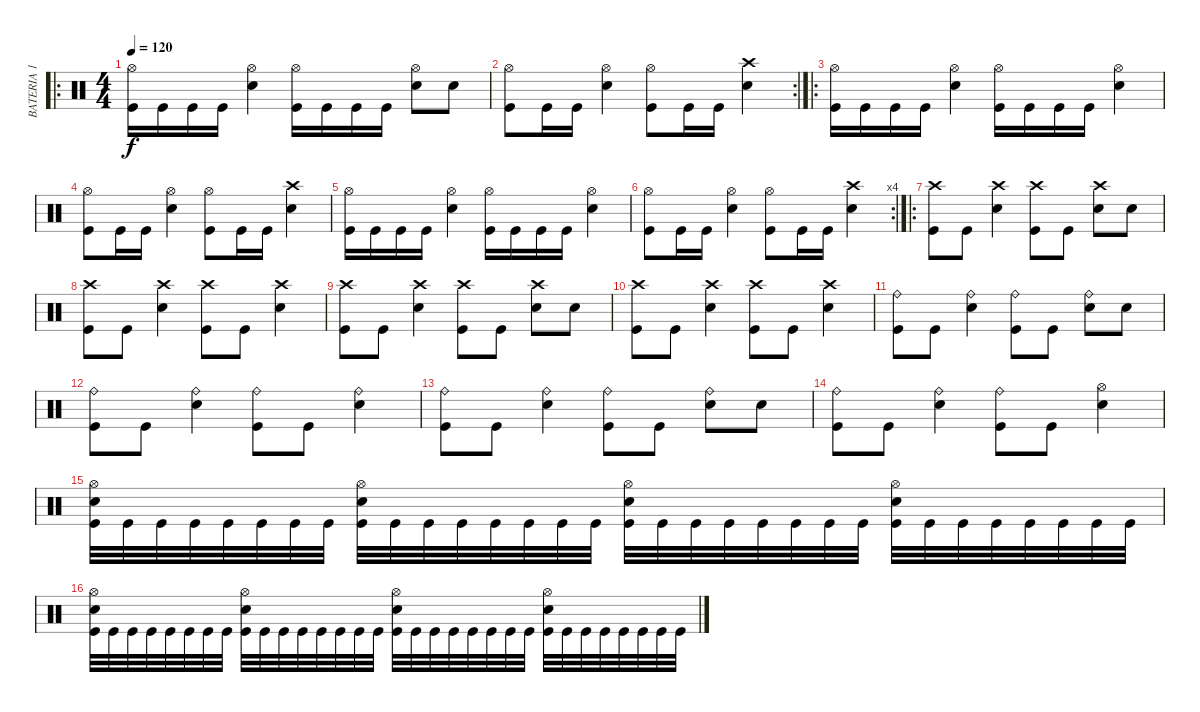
\track ("BATERIA 1" "BATERIA 1") {instrument percussion}
\staff {score}
\articulation defaults
\ro
\ts (4 4)
\tempo 120
\clef neutral
\ks c
("Hi-Hat (open)" "Kick (hit)").16{dy f} "Kick (hit)".16 "Kick (hit)".16 "Kick (hit)".16 ("Hi-Hat (open)" "Snare (hit) 2").4 ("Hi-Hat (open)" "Kick (hit)").16 "Kick (hit)".16 "Kick (hit)".16 "Kick (hit)".16 ("Hi-Hat (open)" "Snare (hit) 2").8 "Snare (hit) 2".8 |
\rc 2
("Hi-Hat (open)" "Kick (hit)").8 "Kick (hit)".16 "Kick (hit)".16 ("Hi-Hat (open)" "Snare (hit) 2").4 ("Hi-Hat (open)" "Kick (hit)").8 "Kick (hit)".16 "Kick (hit)".16 ("Crash high (hit)" "Snare (hit) 2").4 |
\ro
("Hi-Hat (open)" "Kick (hit)").16 "Kick (hit)".16 "Kick (hit)".16 "Kick (hit)".16 ("Hi-Hat (open)" "Snare (hit) 2").4 ("Hi-Hat (open)" "Kick (hit)").16 "Kick (hit)".16 "Kick (hit)".16 "Kick (hit)".16 ("Hi-Hat (open)" "Snare (hit) 2").4 |
("Hi-Hat (open)" "Kick (hit)").8 "Kick (hit)".16 "Kick (hit)".16 ("Hi-Hat (open)" "Snare (hit) 2").4 ("Hi-Hat (open)" "Kick (hit)").8 "Kick (hit)".16 "Kick (hit)".16 ("Crash high (hit)" "Snare (hit) 2").4 |
("Hi-Hat (open)" "Kick (hit)").16 "Kick (hit)".16 "Kick (hit)".16 "Kick (hit)".16 ("Hi-Hat (open)" "Snare (hit) 2").4 ("Hi-Hat (open)" "Kick (hit)").16 "Kick (hit)".16 "Kick (hit)".16 "Kick (hit)".16 ("Hi-Hat (open)" "Snare (hit) 2").4 |
\rc 4
("Hi-Hat (open)" "Kick (hit)").8 "Kick (hit)".16 "Kick (hit)".16 ("Hi-Hat (open)" "Snare (hit) 2").4 ("Hi-Hat (open)" "Kick (hit)").8 "Kick (hit)".16 "Kick (hit)".16 ("Crash high (hit)" "Snare (hit) 2").4 |
\ro
("Crash high (hit)" "Kick (hit)").8 "Kick (hit)".8 ("Crash high (hit)" "Snare (hit) 2").4 ("Crash high (hit)" "Kick (hit)").8 "Kick (hit)".8 ("Crash high (hit)" "Snare (hit) 2").8 "Snare (hit) 2".8 |
("Crash high (hit)" "Kick (hit)").8 "Kick (hit)".8 ("Crash high (hit)" "Snare (hit) 2").4 ("Crash high (hit)" "Kick (hit)").8 "Kick (hit)".8 ("Crash high (hit)" "Snare (hit) 2").4 |
("Crash high (hit)" "Kick (hit)").8 "Kick (hit)".8 ("Crash high (hit)" "Snare (hit) 2").4 ("Crash high (hit)" "Kick (hit)").8 "Kick (hit)".8 ("Crash high (hit)" "Snare (hit) 2").8 "Snare (hit) 2".8 |
("Crash high (hit)" "Kick (hit)").8 "Kick (hit)".8 ("Crash high (hit)" "Snare (hit) 2").4 ("Crash high (hit)" "Kick (hit)").8 "Kick (hit)".8 ("Crash high (hit)" "Snare (hit) 2").4 |
("Ride (bell)" "Kick (hit)").8 "Kick (hit)".8 ("Ride (bell)" "Snare (hit) 2").4 ("Ride (bell)" "Kick (hit)").8 "Kick (hit)".8 ("Ride (bell)" "Snare (hit) 2").8 "Snare (hit) 2".8 |
("Ride (bell)" "Kick (hit)").8 "Kick (hit)".8 ("Ride (bell)" "Snare (hit) 2").4 ("Ride (bell)" "Kick (hit)").8 "Kick (hit)".8 ("Ride (bell)" "Snare (hit) 2").4 |
("Ride (bell)" "Kick (hit)").8 "Kick (hit)".8 ("Ride (bell)" "Snare (hit) 2").4 ("Ride (bell)" "Kick (hit)").8 "Kick (hit)".8 ("Ride (bell)" "Snare (hit) 2").8 "Snare (hit) 2".8 |
("Ride (bell)" "Kick (hit)").8 "Kick (hit)".8 ("Ride (bell)" "Snare (hit) 2").4 ("Ride (bell)" "Kick (hit)").8 "Kick (hit)".8 ("Hi-Hat (open)" "Snare (hit) 2").4 |
("Kick (hit)" "Snare (hit) 2" "Hi-Hat (open)").32 "Kick (hit)".32 "Kick (hit)".32 "Kick (hit)".32 "Kick (hit)".32 "Kick (hit)".32 "Kick (hit)".32 "Kick (hit)".32 ("Kick (hit)" "Snare (hit) 2" "Hi-Hat (open)").32 "Kick (hit)".32 "Kick (hit)".32 "Kick (hit)".32 "Kick (hit)".32 "Kick (hit)".32 "Kick (hit)".32 "Kick (hit)".32 ("Kick (hit)" "Snare (hit) 2" "Hi-Hat (open)").32 "Kick (hit)".32 "Kick (hit)".32 "Kick (hit)".32 "Kick (hit)".32 "Kick (hit)".32 "Kick (hit)".32 "Kick (hit)".32 ("Kick (hit)" "Snare (hit) 2" "Hi-Hat (open)").32 "Kick (hit)".32 "Kick (hit)".32 "Kick (hit)".32 "Kick (hit)".32 "Kick (hit)".32 "Kick (hit)".32 "Kick (hit)".32 |
("Kick (hit)" "Snare (hit) 2" "Hi-Hat (open)").32 "Kick (hit)".32 "Kick (hit)".32 "Kick (hit)".32 "Kick (hit)".32 "Kick (hit)".32 "Kick (hit)".32 "Kick (hit)".32 ("Kick (hit)" "Snare (hit) 2" "Hi-Hat (open)").32 "Kick (hit)".32 "Kick (hit)".32 "Kick (hit)".32 "Kick (hit)".32 "Kick (hit)".32 "Kick (hit)".32 "Kick (hit)".32 ("Kick (hit)" "Snare (hit) 2" "Hi-Hat (open)").32 "Kick (hit)".32 "Kick (hit)".32 "Kick (hit)".32 "Kick (hit)".32 "Kick (hit)".32 "Kick (hit)".32 "Kick (hit)".32 ("Kick (hit)" "Snare (hit) 2" "Hi-Hat (open)").32 "Kick (hit)".32 "Kick (hit)".32 "Kick (hit)".32 "Kick (hit)".32 "Kick (hit)".32 "Kick (hit)".32 "Kick (hit)".32
